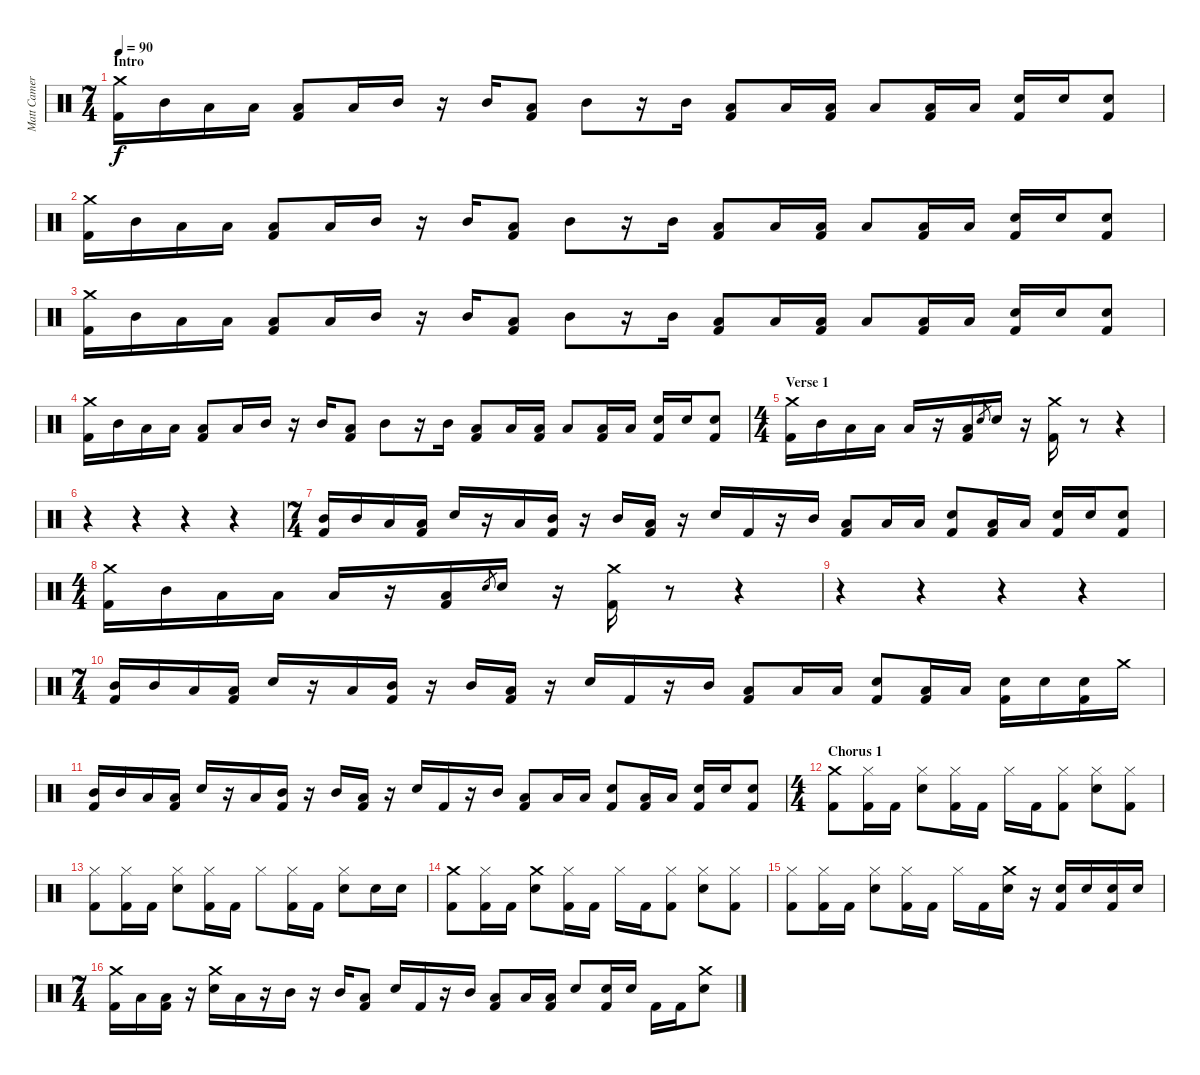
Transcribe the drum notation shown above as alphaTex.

\track ("Matt Cameron" "Matt Camer") {instrument percussion}
\staff {score}
\articulation defaults
\ts (7 4)
\section ("" "Intro")
\tempo 90
\clef neutral
\ks c
("Crash medium (hit)" "Kick (hit) 2").16{dy f} "Mid Tom (hit)".16 "Low Tom (hit)".16 "Low Tom (hit)".16 ("Low Tom (hit)" "Kick (hit) 2").8 "Low Tom (hit)".16 "Mid Tom (hit)".16 r.16 "Mid Tom (hit)".16 ("Low Tom (hit)" "Kick (hit) 2").8 "Mid Tom (hit)".8 r.16 "Mid Tom (hit)".16 ("Low Tom (hit)" "Kick (hit) 2").8 "Low Tom (hit)".16 ("Low Tom (hit)" "Kick (hit) 2").16 "Low Tom (hit)".8 ("Low Tom (hit)" "Kick (hit) 2").16 "Low Tom (hit)".16 ("Electric Snare (hit)" "Kick (hit) 2").16 "Electric Snare (hit)".16 ("Electric Snare (hit)" "Kick (hit) 2").8 |
("Crash medium (hit)" "Kick (hit) 2").16 "Mid Tom (hit)".16 "Low Tom (hit)".16 "Low Tom (hit)".16 ("Low Tom (hit)" "Kick (hit) 2").8 "Low Tom (hit)".16 "Mid Tom (hit)".16 r.16 "Mid Tom (hit)".16 ("Low Tom (hit)" "Kick (hit) 2").8 "Mid Tom (hit)".8 r.16 "Mid Tom (hit)".16 ("Low Tom (hit)" "Kick (hit) 2").8 "Low Tom (hit)".16 ("Low Tom (hit)" "Kick (hit) 2").16 "Low Tom (hit)".8 ("Low Tom (hit)" "Kick (hit) 2").16 "Low Tom (hit)".16 ("Electric Snare (hit)" "Kick (hit) 2").16 "Electric Snare (hit)".16 ("Electric Snare (hit)" "Kick (hit) 2").8 |
("Crash medium (hit)" "Kick (hit) 2").16 "Mid Tom (hit)".16 "Low Tom (hit)".16 "Low Tom (hit)".16 ("Low Tom (hit)" "Kick (hit) 2").8 "Low Tom (hit)".16 "Mid Tom (hit)".16 r.16 "Mid Tom (hit)".16 ("Low Tom (hit)" "Kick (hit) 2").8 "Mid Tom (hit)".8 r.16 "Mid Tom (hit)".16 ("Low Tom (hit)" "Kick (hit) 2").8 "Low Tom (hit)".16 ("Low Tom (hit)" "Kick (hit) 2").16 "Low Tom (hit)".8 ("Low Tom (hit)" "Kick (hit) 2").16 "Low Tom (hit)".16 ("Electric Snare (hit)" "Kick (hit) 2").16 "Electric Snare (hit)".16 ("Electric Snare (hit)" "Kick (hit) 2").8 |
("Crash medium (hit)" "Kick (hit) 2").16 "Mid Tom (hit)".16 "Low Tom (hit)".16 "Low Tom (hit)".16 ("Low Tom (hit)" "Kick (hit) 2").8 "Low Tom (hit)".16 "Mid Tom (hit)".16 r.16 "Mid Tom (hit)".16 ("Low Tom (hit)" "Kick (hit) 2").8 "Mid Tom (hit)".8 r.16 "Mid Tom (hit)".16 ("Low Tom (hit)" "Kick (hit) 2").8 "Low Tom (hit)".16 ("Low Tom (hit)" "Kick (hit) 2").16 "Low Tom (hit)".8 ("Low Tom (hit)" "Kick (hit) 2").16 "Low Tom (hit)".16 ("Electric Snare (hit)" "Kick (hit) 2").16 "Electric Snare (hit)".16 ("Electric Snare (hit)" "Kick (hit) 2").8 |
\ts (4 4)
\section ("" "Verse 1")
("Crash medium (hit)" "Kick (hit) 2").16 "Mid Tom (hit)".16 "Low Tom (hit)".16 "Low Tom (hit)".16 "Low Tom (hit)".16 r.16 ("Low Tom (hit)" "Kick (hit) 2").16 "Electric Snare (hit)".8{gr} "Electric Snare (hit)".16 r.16 ("Crash medium (hit)" "Kick (hit) 2").16 r.8 r.4 |
r.4 r.4 r.4 r.4 |
\ts (7 4)
("Mid Tom (hit)" "Kick (hit) 2").16 "Mid Tom (hit)".16 "Low Tom (hit)".16 ("Low Tom (hit)" "Kick (hit) 2").16 "Electric Snare (hit)".16 r.16 "Low Tom (hit)".16 ("Mid Tom (hit)" "Kick (hit) 2").16 r.16 "Mid Tom (hit)".16 ("Low Tom (hit)" "Kick (hit) 2").16 r.16 "Electric Snare (hit)".16 "Kick (hit) 2".16 r.16 "Mid Tom (hit)".16 ("Low Tom (hit)" "Kick (hit) 2").8 "Low Tom (hit)".16 "Low Tom (hit)".16 ("Electric Snare (hit)" "Kick (hit) 2").8 ("Low Tom (hit)" "Kick (hit) 2").16 "Low Tom (hit)".16 ("Electric Snare (hit)" "Kick (hit) 2").16 "Electric Snare (hit)".16 ("Electric Snare (hit)" "Kick (hit) 2").8 |
\ts (4 4)
("Crash medium (hit)" "Kick (hit) 2").16 "Mid Tom (hit)".16 "Low Tom (hit)".16 "Low Tom (hit)".16 "Low Tom (hit)".16 r.16 ("Low Tom (hit)" "Kick (hit) 2").16 "Electric Snare (hit)".8{gr} "Electric Snare (hit)".16 r.16 ("Crash medium (hit)" "Kick (hit) 2").16 r.8 r.4 |
r.4 r.4 r.4 r.4 |
\ts (7 4)
("Mid Tom (hit)" "Kick (hit) 2").16 "Mid Tom (hit)".16 "Low Tom (hit)".16 ("Low Tom (hit)" "Kick (hit) 2").16 "Electric Snare (hit)".16 r.16 "Low Tom (hit)".16 ("Mid Tom (hit)" "Kick (hit) 2").16 r.16 "Mid Tom (hit)".16 ("Low Tom (hit)" "Kick (hit) 2").16 r.16 "Electric Snare (hit)".16 "Kick (hit) 2".16 r.16 "Mid Tom (hit)".16 ("Low Tom (hit)" "Kick (hit) 2").8 "Low Tom (hit)".16 "Low Tom (hit)".16 ("Electric Snare (hit)" "Kick (hit) 2").8 ("Low Tom (hit)" "Kick (hit) 2").16 "Low Tom (hit)".16 ("Electric Snare (hit)" "Kick (hit) 2").16 "Electric Snare (hit)".16 ("Electric Snare (hit)" "Kick (hit) 2").16 "Crash medium (hit)".16 |
("Mid Tom (hit)" "Kick (hit) 2").16 "Mid Tom (hit)".16 "Low Tom (hit)".16 ("Low Tom (hit)" "Kick (hit) 2").16 "Electric Snare (hit)".16 r.16 "Low Tom (hit)".16 ("Mid Tom (hit)" "Kick (hit) 2").16 r.16 "Mid Tom (hit)".16 ("Low Tom (hit)" "Kick (hit) 2").16 r.16 "Electric Snare (hit)".16 "Kick (hit) 2".16 r.16 "Mid Tom (hit)".16 ("Low Tom (hit)" "Kick (hit) 2").8 "Low Tom (hit)".16 "Low Tom (hit)".16 ("Electric Snare (hit)" "Kick (hit) 2").8 ("Low Tom (hit)" "Kick (hit) 2").16 "Low Tom (hit)".16 ("Electric Snare (hit)" "Kick (hit) 2").16 "Electric Snare (hit)".16 ("Electric Snare (hit)" "Kick (hit) 2").8 |
\ts (4 4)
\section ("" "Chorus 1")
("Crash medium (hit)" "Kick (hit) 2").8 ("Hi-Hat (closed)" "Kick (hit) 2").16 "Kick (hit) 2".16 ("Hi-Hat (closed)" "Electric Snare (hit)").8 ("Hi-Hat (closed)" "Kick (hit) 2").16 "Kick (hit) 2".16 "Hi-Hat (closed)".16 "Kick (hit) 2".16 ("Hi-Hat (closed)" "Kick (hit) 2").8 ("Hi-Hat (closed)" "Electric Snare (hit)").8 ("Hi-Hat (closed)" "Kick (hit) 2").8 |
("Hi-Hat (closed)" "Kick (hit) 2").8 ("Hi-Hat (closed)" "Kick (hit) 2").16 "Kick (hit) 2".16 ("Hi-Hat (closed)" "Electric Snare (hit)").8 ("Hi-Hat (closed)" "Kick (hit) 2").16 "Kick (hit) 2".16 "Hi-Hat (closed)".8 ("Hi-Hat (closed)" "Kick (hit) 2").16 "Kick (hit) 2".16 ("Hi-Hat (closed)" "Electric Snare (hit)").8 "Electric Snare (hit)".16 "Electric Snare (hit)".16 |
("Crash medium (hit)" "Kick (hit) 2").8 ("Hi-Hat (closed)" "Kick (hit) 2").16 "Kick (hit) 2".16 ("Crash medium (hit)" "Electric Snare (hit)").8 ("Hi-Hat (closed)" "Kick (hit) 2").16 "Kick (hit) 2".16 "Hi-Hat (closed)".16 "Kick (hit) 2".16 ("Hi-Hat (closed)" "Kick (hit) 2").8 ("Hi-Hat (closed)" "Electric Snare (hit)").8 ("Hi-Hat (closed)" "Kick (hit) 2").8 |
("Hi-Hat (closed)" "Kick (hit) 2").8 ("Hi-Hat (closed)" "Kick (hit) 2").16 "Kick (hit) 2".16 ("Hi-Hat (closed)" "Electric Snare (hit)").8 ("Hi-Hat (closed)" "Kick (hit) 2").16 "Kick (hit) 2".16 "Hi-Hat (closed)".16 "Kick (hit) 2".16 ("Crash medium (hit)" "Electric Snare (hit)").16 r.16 ("Electric Snare (hit)" "Kick (hit) 2").16 "Electric Snare (hit)".16 ("Electric Snare (hit)" "Kick (hit) 2").16 "Electric Snare (hit)".16 |
\ts (7 4)
("Crash medium (hit)" "Kick (hit) 2").16 "Low Tom (hit)".16 ("Low Tom (hit)" "Kick (hit) 2").16 r.16 ("Crash medium (hit)" "Electric Snare (hit)").16 "Low Tom (hit)".16 r.16 "Mid Tom (hit)".16 r.16 "Mid Tom (hit)".16 ("Low Tom (hit)" "Kick (hit) 2").8 "Electric Snare (hit)".16 "Kick (hit) 2".16 r.16 "Mid Tom (hit)".16 ("Low Tom (hit)" "Kick (hit) 2").8 "Low Tom (hit)".16 ("Low Tom (hit)" "Kick (hit) 2").16 "Electric Snare (hit)".8 ("Electric Snare (hit)" "Kick (hit) 2").16 "Electric Snare (hit)".16 "Kick (hit) 2".16 "Kick (hit) 2".16 ("Crash medium (hit)" "Electric Snare (hit)").8
